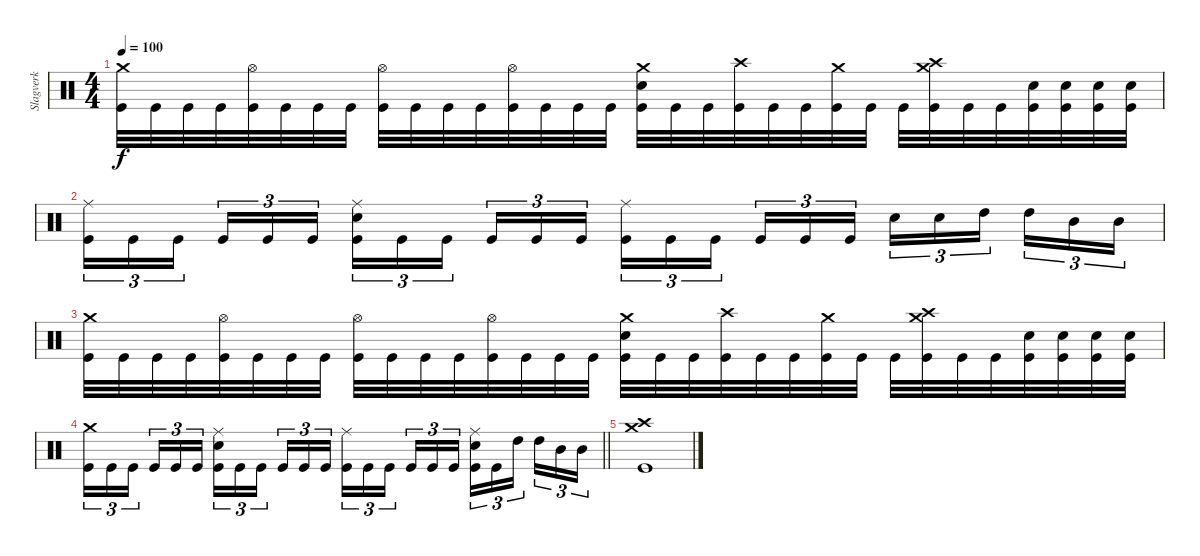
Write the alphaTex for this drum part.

\track ("Slagverk" "Slagverk") {solo instrument percussion}
\staff {score}
\articulation defaults
\ts (4 4)
\tempo 100
\clef neutral
\ks c
("Crash medium (hit)" "Kick (hit)").32{dy f} "Kick (hit)".32 "Kick (hit)".32 "Kick (hit)".32 ("Hi-Hat (open)" "Kick (hit)").32 "Kick (hit)".32 "Kick (hit)".32 "Kick (hit)".32 ("Hi-Hat (open)" "Kick (hit)").32 "Kick (hit)".32 "Kick (hit)".32 "Kick (hit)".32 ("Hi-Hat (open)" "Kick (hit)").32 "Kick (hit)".32 "Kick (hit)".32 "Kick (hit)".32 ("Crash medium (hit)" "Electric Snare (hit)" "Kick (hit)").32 "Kick (hit)".32 "Kick (hit)".32 ("Crash high (hit)" "Kick (hit)").32 "Kick (hit)".32 "Kick (hit)".32 ("Crash medium (hit)" "Kick (hit)").32 "Kick (hit)".32 "Kick (hit)".32 ("Crash medium (hit)" "Crash high (hit)" "Kick (hit)").32 "Kick (hit)".32 "Kick (hit)".32 ("Snare (hit) 2" "Kick (hit)").32 ("Snare (hit) 2" "Kick (hit)").32 ("Snare (hit) 2" "Kick (hit)").32 ("Snare (hit) 2" "Kick (hit)").32 |
("Ride (middle)" "Kick (hit)").16{tu (3 2)} "Kick (hit)".16{tu (3 2)} "Kick (hit)".16{tu (3 2) beam splitsecondary} "Kick (hit)".16{tu (3 2)} "Kick (hit)".16{tu (3 2)} "Kick (hit)".16{tu (3 2)} ("Ride (middle)" "Electric Snare (hit)" "Kick (hit)").16{tu (3 2)} "Kick (hit)".16{tu (3 2)} "Kick (hit)".16{tu (3 2) beam splitsecondary} "Kick (hit)".16{tu (3 2)} "Kick (hit)".16{tu (3 2)} "Kick (hit)".16{tu (3 2)} ("Ride (middle)" "Kick (hit)").16{tu (3 2)} "Kick (hit)".16{tu (3 2)} "Kick (hit)".16{tu (3 2) beam splitsecondary} "Kick (hit)".16{tu (3 2)} "Kick (hit)".16{tu (3 2)} "Kick (hit)".16{tu (3 2)} "Electric Snare (hit)".16{tu (3 2)} "Electric Snare (hit)".16{tu (3 2)} "High Tom (hit)".16{tu (3 2) beam splitsecondary} "High Tom (hit)".16{tu (3 2)} "Mid Tom (hit)".16{tu (3 2)} "Mid Tom (hit)".16{tu (3 2)} |
("Crash medium (hit)" "Kick (hit)").32 "Kick (hit)".32 "Kick (hit)".32 "Kick (hit)".32 ("Hi-Hat (open)" "Kick (hit)").32 "Kick (hit)".32 "Kick (hit)".32 "Kick (hit)".32 ("Hi-Hat (open)" "Kick (hit)").32 "Kick (hit)".32 "Kick (hit)".32 "Kick (hit)".32 ("Hi-Hat (open)" "Kick (hit)").32 "Kick (hit)".32 "Kick (hit)".32 "Kick (hit)".32 ("Crash medium (hit)" "Electric Snare (hit)" "Kick (hit)").32 "Kick (hit)".32 "Kick (hit)".32 ("Crash high (hit)" "Kick (hit)").32 "Kick (hit)".32 "Kick (hit)".32 ("Crash medium (hit)" "Kick (hit)").32 "Kick (hit)".32 "Kick (hit)".32 ("Crash medium (hit)" "Crash high (hit)" "Kick (hit)").32 "Kick (hit)".32 "Kick (hit)".32 ("Snare (hit) 2" "Kick (hit)").32 ("Snare (hit) 2" "Kick (hit)").32 ("Snare (hit) 2" "Kick (hit)").32 ("Snare (hit) 2" "Kick (hit)").32 |
\barLineRight lightlight
("Crash medium (hit)" "Kick (hit)").16{tu (3 2)} "Kick (hit)".16{tu (3 2)} "Kick (hit)".16{tu (3 2) beam splitsecondary} "Kick (hit)".16{tu (3 2)} "Kick (hit)".16{tu (3 2)} "Kick (hit)".16{tu (3 2)} ("Ride (middle)" "Electric Snare (hit)" "Kick (hit)").16{tu (3 2)} "Kick (hit)".16{tu (3 2)} "Kick (hit)".16{tu (3 2) beam splitsecondary} "Kick (hit)".16{tu (3 2)} "Kick (hit)".16{tu (3 2)} "Kick (hit)".16{tu (3 2)} ("Ride (middle)" "Kick (hit)").16{tu (3 2)} "Kick (hit)".16{tu (3 2)} "Kick (hit)".16{tu (3 2) beam splitsecondary} "Kick (hit)".16{tu (3 2)} "Kick (hit)".16{tu (3 2)} "Kick (hit)".16{tu (3 2)} ("Ride (middle)" "Electric Snare (hit)" "Kick (hit)").16{tu (3 2)} "Kick (hit)".16{tu (3 2)} "High Tom (hit)".16{tu (3 2) beam splitsecondary} "High Tom (hit)".16{tu (3 2)} "Mid Tom (hit)".16{tu (3 2)} "Mid Tom (hit)".16{tu (3 2)} |
("Crash high (hit)" "Crash medium (hit)" "Kick (hit)").1
